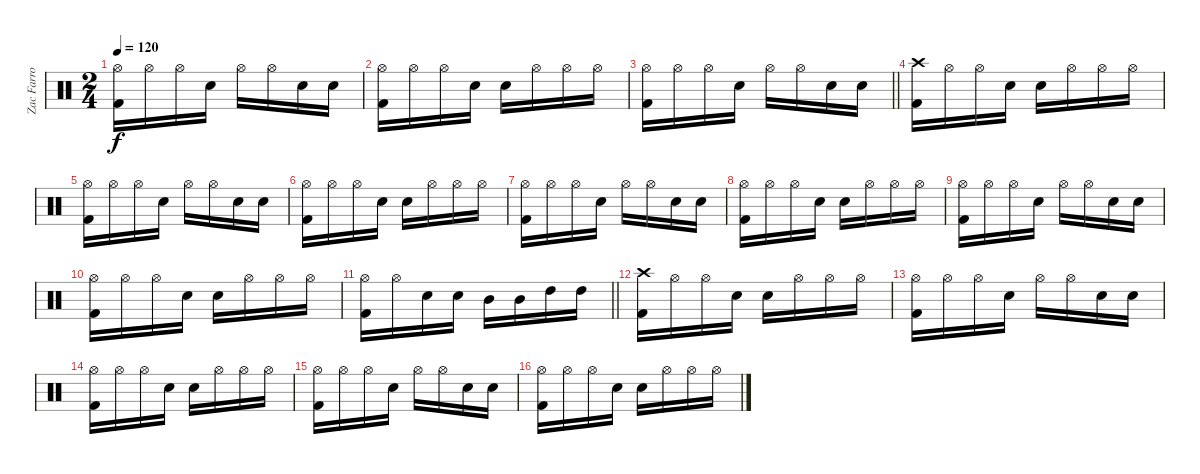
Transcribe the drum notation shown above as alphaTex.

\track ("Zac Farro" "Zac Farro") {instrument percussion}
\staff {score}
\articulation defaults
\ts (2 4)
\tempo 120
\clef neutral
\ks c
("Hi-Hat (open)" "Kick (hit) 2").16{dy f} "Hi-Hat (open)".16 "Hi-Hat (open)".16 "Electric Snare (hit)".16 "Hi-Hat (open)".16 "Hi-Hat (open)".16 "Electric Snare (hit)".16 "Electric Snare (hit)".16 |
("Hi-Hat (open)" "Kick (hit) 2").16 "Hi-Hat (open)".16 "Hi-Hat (open)".16 "Electric Snare (hit)".16 "Electric Snare (hit)".16 "Hi-Hat (open)".16 "Hi-Hat (open)".16 "Hi-Hat (open)".16 |
\barLineRight lightlight
("Hi-Hat (open)" "Kick (hit) 2").16 "Hi-Hat (open)".16 "Hi-Hat (open)".16 "Electric Snare (hit)".16 "Hi-Hat (open)".16 "Hi-Hat (open)".16 "Electric Snare (hit)".16 "Electric Snare (hit)".16 |
("Kick (hit) 2" "Crash high (hit)").16 "Hi-Hat (open)".16 "Hi-Hat (open)".16 "Electric Snare (hit)".16 "Electric Snare (hit)".16 "Hi-Hat (open)".16 "Hi-Hat (open)".16 "Hi-Hat (open)".16 |
("Hi-Hat (open)" "Kick (hit) 2").16 "Hi-Hat (open)".16 "Hi-Hat (open)".16 "Electric Snare (hit)".16 "Hi-Hat (open)".16 "Hi-Hat (open)".16 "Electric Snare (hit)".16 "Electric Snare (hit)".16 |
("Hi-Hat (open)" "Kick (hit) 2").16 "Hi-Hat (open)".16 "Hi-Hat (open)".16 "Electric Snare (hit)".16 "Electric Snare (hit)".16 "Hi-Hat (open)".16 "Hi-Hat (open)".16 "Hi-Hat (open)".16 |
("Hi-Hat (open)" "Kick (hit) 2").16 "Hi-Hat (open)".16 "Hi-Hat (open)".16 "Electric Snare (hit)".16 "Hi-Hat (open)".16 "Hi-Hat (open)".16 "Electric Snare (hit)".16 "Electric Snare (hit)".16 |
("Hi-Hat (open)" "Kick (hit) 2").16 "Hi-Hat (open)".16 "Hi-Hat (open)".16 "Electric Snare (hit)".16 "Electric Snare (hit)".16 "Hi-Hat (open)".16 "Hi-Hat (open)".16 "Hi-Hat (open)".16 |
("Hi-Hat (open)" "Kick (hit) 2").16 "Hi-Hat (open)".16 "Hi-Hat (open)".16 "Electric Snare (hit)".16 "Hi-Hat (open)".16 "Hi-Hat (open)".16 "Electric Snare (hit)".16 "Electric Snare (hit)".16 |
("Hi-Hat (open)" "Kick (hit) 2").16 "Hi-Hat (open)".16 "Hi-Hat (open)".16 "Electric Snare (hit)".16 "Electric Snare (hit)".16 "Hi-Hat (open)".16 "Hi-Hat (open)".16 "Hi-Hat (open)".16 |
\barLineRight lightlight
("Hi-Hat (open)" "Kick (hit) 2").16 "Hi-Hat (open)".16 "Electric Snare (hit)".16 "Electric Snare (hit)".16 "Mid Tom (hit)".16 "Mid Tom (hit)".16 "High Tom (hit)".16 "High Tom (hit)".16 |
("Kick (hit) 2" "Crash high (hit)").16 "Hi-Hat (open)".16 "Hi-Hat (open)".16 "Electric Snare (hit)".16 "Electric Snare (hit)".16 "Hi-Hat (open)".16 "Hi-Hat (open)".16 "Hi-Hat (open)".16 |
("Hi-Hat (open)" "Kick (hit) 2").16 "Hi-Hat (open)".16 "Hi-Hat (open)".16 "Electric Snare (hit)".16 "Hi-Hat (open)".16 "Hi-Hat (open)".16 "Electric Snare (hit)".16 "Electric Snare (hit)".16 |
("Hi-Hat (open)" "Kick (hit) 2").16 "Hi-Hat (open)".16 "Hi-Hat (open)".16 "Electric Snare (hit)".16 "Electric Snare (hit)".16 "Hi-Hat (open)".16 "Hi-Hat (open)".16 "Hi-Hat (open)".16 |
("Hi-Hat (open)" "Kick (hit) 2").16 "Hi-Hat (open)".16 "Hi-Hat (open)".16 "Electric Snare (hit)".16 "Hi-Hat (open)".16 "Hi-Hat (open)".16 "Electric Snare (hit)".16 "Electric Snare (hit)".16 |
("Hi-Hat (open)" "Kick (hit) 2").16 "Hi-Hat (open)".16 "Hi-Hat (open)".16 "Electric Snare (hit)".16 "Electric Snare (hit)".16 "Hi-Hat (open)".16 "Hi-Hat (open)".16 "Hi-Hat (open)".16
